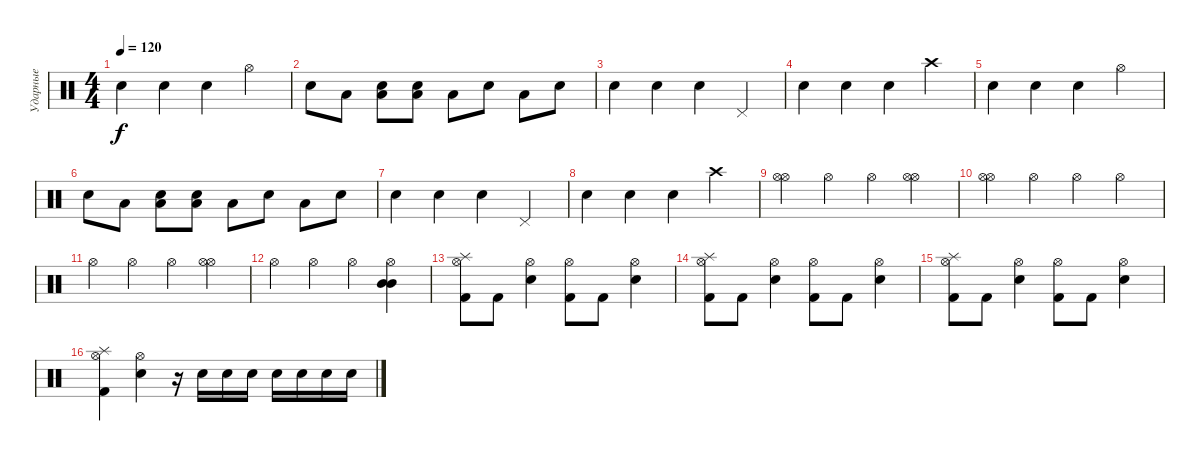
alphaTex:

\track ("Ударные" "Ударные") {instrument percussion}
\staff {score}
\articulation defaults
\ts (4 4)
\tempo 120
\clef neutral
\ks c "Electric Snare (hit)".4{dy f} "Electric Snare (hit)".4 "Electric Snare (hit)".4 "Hi-Hat (open)".4
|
"Electric Snare (hit)".8 "Low Floor Tom (hit)".8 ("Electric Snare (hit)" "Low Floor Tom (hit)").8 ("Electric Snare (hit)" "Low Floor Tom (hit)").8 "Low Floor Tom (hit)".8 "Electric Snare (hit)".8 "Low Floor Tom (hit)".8 "Electric Snare (hit)".8 |
"Electric Snare (hit)".4 "Electric Snare (hit)".4 "Electric Snare (hit)".4 "Pedal Hi-Hat (hit)".4 |
"Electric Snare (hit)".4 "Electric Snare (hit)".4 "Electric Snare (hit)".4 "Crash high (hit)".4 |
"Electric Snare (hit)".4 "Electric Snare (hit)".4 "Electric Snare (hit)".4 "Hi-Hat (open)".4 |
"Electric Snare (hit)".8 "Low Floor Tom (hit)".8 ("Electric Snare (hit)" "Low Floor Tom (hit)").8 ("Electric Snare (hit)" "Low Floor Tom (hit)").8 "Low Floor Tom (hit)".8 "Electric Snare (hit)".8 "Low Floor Tom (hit)".8 "Electric Snare (hit)".8 |
"Electric Snare (hit)".4 "Electric Snare (hit)".4 "Electric Snare (hit)".4 "Pedal Hi-Hat (hit)".4 |
"Electric Snare (hit)".4 "Electric Snare (hit)".4 "Electric Snare (hit)".4 "Crash high (hit)".4 |
("Hi-Hat (open)" "Hi-Hat (open)").4 "Hi-Hat (open)".4 "Hi-Hat (open)".4 ("Hi-Hat (open)" "Hi-Hat (open)").4 |
("Hi-Hat (open)" "Hi-Hat (open)").4 "Hi-Hat (open)".4 "Hi-Hat (open)".4 "Hi-Hat (open)".4 |
"Hi-Hat (open)".4 "Hi-Hat (open)".4 "Hi-Hat (open)".4 ("Hi-Hat (open)" "Hi-Hat (open)").4 |
"Hi-Hat (open)".4 "Hi-Hat (open)".4 "Hi-Hat (open)".4 ("Mid Tom (hit)" "Mid Tom (hit)" "Hi-Hat (open)").4 |
("Kick (hit) 2" "Hi-Hat (open)" "Splash (hit)").8 "Kick (hit) 2".8 ("Electric Snare (hit)" "Hi-Hat (open)").4 ("Kick (hit) 2" "Hi-Hat (open)").8 "Kick (hit) 2".8 ("Electric Snare (hit)" "Hi-Hat (open)").4 |
("Kick (hit) 2" "Hi-Hat (open)" "Splash (hit)").8 "Kick (hit) 2".8 ("Electric Snare (hit)" "Hi-Hat (open)").4 ("Kick (hit) 2" "Hi-Hat (open)").8 "Kick (hit) 2".8 ("Electric Snare (hit)" "Hi-Hat (open)").4 |
("Kick (hit) 2" "Hi-Hat (open)" "Splash (hit)").8 "Kick (hit) 2".8 ("Electric Snare (hit)" "Hi-Hat (open)").4 ("Kick (hit) 2" "Hi-Hat (open)").8 "Kick (hit) 2".8 ("Electric Snare (hit)" "Hi-Hat (open)").4 |
("Kick (hit) 2" "Hi-Hat (open)" "Splash (hit)").4 ("Electric Snare (hit)" "Hi-Hat (open)").4 r.16 "Electric Snare (hit)".16 "Electric Snare (hit)".16 "Electric Snare (hit)".16 "Electric Snare (hit)".16 "Electric Snare (hit)".16 "Electric Snare (hit)".16 "Electric Snare (hit)".16
